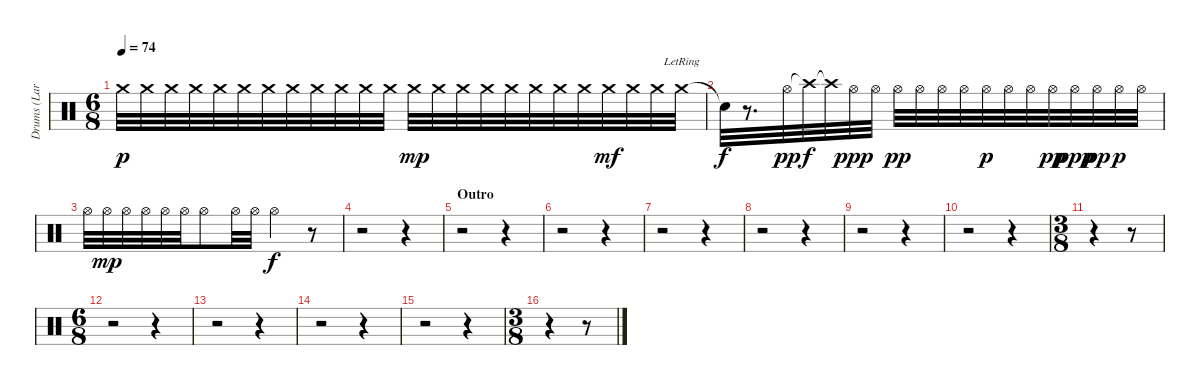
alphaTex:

\track ("Drums (Lars Ulrich)" "Drums (Lar") {instrument percussion}
\staff {score}
\articulation defaults
\ts (6 8)
\tempo 74
\clef neutral
\ks c "Crash medium (hit)".32{dy p} "Crash medium (hit)".32 "Crash medium (hit)".32 "Crash medium (hit)".32 "Crash medium (hit)".32 "Crash medium (hit)".32 "Crash medium (hit)".32 "Crash medium (hit)".32 "Crash medium (hit)".32 "Crash medium (hit)".32 "Crash medium (hit)".32 "Crash medium (hit)".32 "Crash medium (hit)".32{dy mp} "Crash medium (hit)".32 "Crash medium (hit)".32 "Crash medium (hit)".32 "Crash medium (hit)".32 "Crash medium (hit)".32 "Crash medium (hit)".32 "Crash medium (hit)".32 "Crash medium (hit)".32{dy mf} "Crash medium (hit)".32 "Crash medium (hit)".32 "Crash medium (hit)"{lr}.32
|
"Snare (hit)"{t}.32{dy f} r.8{d} "Hi-Hat (open)".32{dy pp} "Crash high (hit)"{t}.32{dy f} "Crash high (hit)"{t}.32 "Hi-Hat (open)".32{dy ppp} "Hi-Hat (open)".32 "Hi-Hat (open)".32{dy pp} "Hi-Hat (open)".32 "Hi-Hat (open)".32 "Hi-Hat (open)".32 "Hi-Hat (open)".32{dy p} "Hi-Hat (open)".32 "Hi-Hat (open)".32 "Hi-Hat (open)".32{dy pp} "Hi-Hat (open)".32{dy ppp} "Hi-Hat (open)".32{dy pp} "Hi-Hat (open)".32{dy p} "Hi-Hat (open)".32 |
"Hi-Hat (open)".32 "Hi-Hat (open)".32{dy mp} "Hi-Hat (open)".32 "Hi-Hat (open)".32 "Hi-Hat (open)".32 "Hi-Hat (open)".32 "Hi-Hat (open)".8 "Hi-Hat (open)".32 "Hi-Hat (open)".32 "Hi-Hat (open)".4{dy f} r.8 |
r.2 r.4 |
\section ("" "Outro")
r.2 r.4 |
r.2 r.4 |
r.2 r.4 |
r.2 r.4 |
r.2 r.4 |
r.2 r.4 |
\ts (3 8)
r.4 r.8 |
\ts (6 8)
r.2 r.4 |
r.2 r.4 |
r.2 r.4 |
r.2 r.4 |
\ts (3 8)
r.4 r.8
